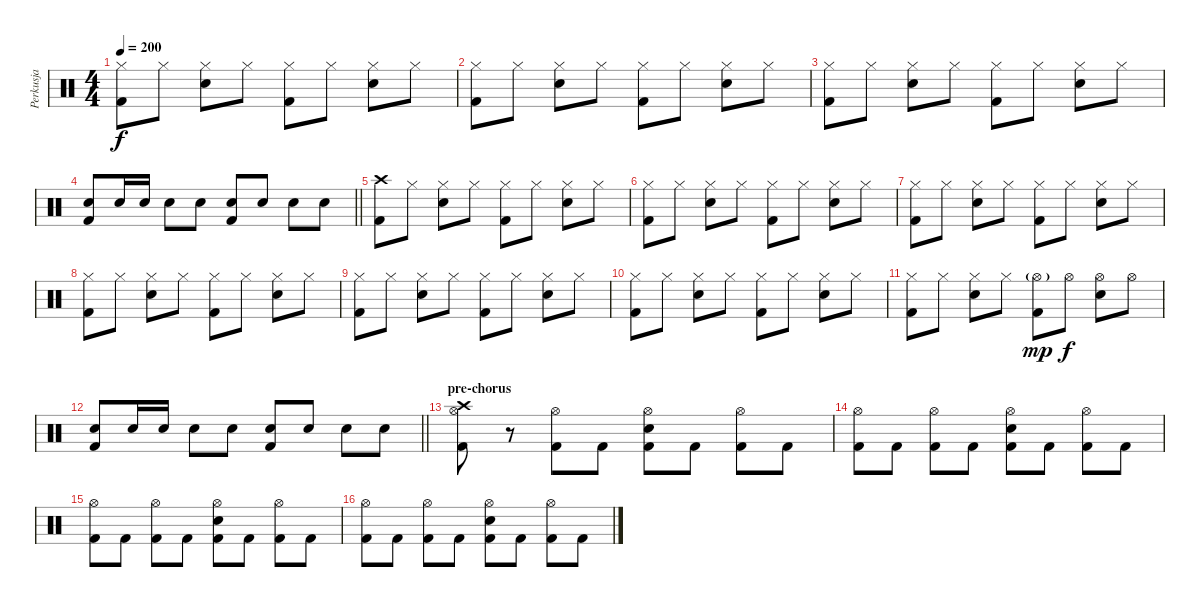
\track ("Perkusja" "Perkusja") {instrument percussion}
\staff {score}
\articulation defaults
\ts (4 4)
\tempo 200
\clef neutral
\ks c
("Hi-Hat (closed)" "Kick (hit) 2").8{dy f} "Hi-Hat (closed)".8 ("Hi-Hat (closed)" "Electric Snare (hit)").8 "Hi-Hat (closed)".8 ("Hi-Hat (closed)" "Kick (hit) 2").8 "Hi-Hat (closed)".8 ("Hi-Hat (closed)" "Electric Snare (hit)").8 "Hi-Hat (closed)".8 |
("Hi-Hat (closed)" "Kick (hit) 2").8 "Hi-Hat (closed)".8 ("Hi-Hat (closed)" "Electric Snare (hit)").8 "Hi-Hat (closed)".8 ("Hi-Hat (closed)" "Kick (hit) 2").8 "Hi-Hat (closed)".8 ("Hi-Hat (closed)" "Electric Snare (hit)").8 "Hi-Hat (closed)".8 |
("Hi-Hat (closed)" "Kick (hit) 2").8 "Hi-Hat (closed)".8 ("Hi-Hat (closed)" "Electric Snare (hit)").8 "Hi-Hat (closed)".8 ("Hi-Hat (closed)" "Kick (hit) 2").8 "Hi-Hat (closed)".8 ("Hi-Hat (closed)" "Electric Snare (hit)").8 "Hi-Hat (closed)".8 |
\barLineRight lightlight
("Electric Snare (hit)" "Kick (hit) 2").8 "Electric Snare (hit)".16 "Electric Snare (hit)".16 "Electric Snare (hit)".8 "Electric Snare (hit)".8 ("Electric Snare (hit)" "Kick (hit) 2").8 "Electric Snare (hit)".8 "Electric Snare (hit)".8 "Electric Snare (hit)".8 |
("Crash high (hit)" "Kick (hit) 2").8 "Hi-Hat (closed)".8 ("Hi-Hat (closed)" "Electric Snare (hit)").8 "Hi-Hat (closed)".8 ("Hi-Hat (closed)" "Kick (hit) 2").8 "Hi-Hat (closed)".8 ("Hi-Hat (closed)" "Electric Snare (hit)").8 "Hi-Hat (closed)".8 |
("Hi-Hat (closed)" "Kick (hit) 2").8 "Hi-Hat (closed)".8 ("Hi-Hat (closed)" "Electric Snare (hit)").8 "Hi-Hat (closed)".8 ("Hi-Hat (closed)" "Kick (hit) 2").8 "Hi-Hat (closed)".8 ("Hi-Hat (closed)" "Electric Snare (hit)").8 "Hi-Hat (closed)".8 |
("Hi-Hat (closed)" "Kick (hit) 2").8 "Hi-Hat (closed)".8 ("Hi-Hat (closed)" "Electric Snare (hit)").8 "Hi-Hat (closed)".8 ("Hi-Hat (closed)" "Kick (hit) 2").8 "Hi-Hat (closed)".8 ("Hi-Hat (closed)" "Electric Snare (hit)").8 "Hi-Hat (closed)".8 |
("Hi-Hat (closed)" "Kick (hit) 2").8 "Hi-Hat (closed)".8 ("Hi-Hat (closed)" "Electric Snare (hit)").8 "Hi-Hat (closed)".8 ("Hi-Hat (closed)" "Kick (hit) 2").8 "Hi-Hat (closed)".8 ("Hi-Hat (closed)" "Electric Snare (hit)").8 "Hi-Hat (closed)".8 |
("Hi-Hat (closed)" "Kick (hit) 2").8 "Hi-Hat (closed)".8 ("Hi-Hat (closed)" "Electric Snare (hit)").8 "Hi-Hat (closed)".8 ("Hi-Hat (closed)" "Kick (hit) 2").8 "Hi-Hat (closed)".8 ("Hi-Hat (closed)" "Electric Snare (hit)").8 "Hi-Hat (closed)".8 |
("Hi-Hat (closed)" "Kick (hit) 2").8 "Hi-Hat (closed)".8 ("Hi-Hat (closed)" "Electric Snare (hit)").8 "Hi-Hat (closed)".8 ("Hi-Hat (closed)" "Kick (hit) 2").8 "Hi-Hat (closed)".8 ("Hi-Hat (closed)" "Electric Snare (hit)").8 "Hi-Hat (closed)".8 |
("Hi-Hat (closed)" "Kick (hit) 2").8 "Hi-Hat (closed)".8 ("Hi-Hat (closed)" "Electric Snare (hit)").8 "Hi-Hat (closed)".8 ("Hi-Hat (open)"{g} "Kick (hit) 2").8{dy mp} "Hi-Hat (open)".8{dy f} ("Hi-Hat (open)" "Electric Snare (hit)").8 "Hi-Hat (open)".8 |
\barLineRight lightlight
("Electric Snare (hit)" "Kick (hit) 2").8 "Electric Snare (hit)".16 "Electric Snare (hit)".16 "Electric Snare (hit)".8 "Electric Snare (hit)".8 ("Electric Snare (hit)" "Kick (hit) 2").8 "Electric Snare (hit)".8 "Electric Snare (hit)".8 "Electric Snare (hit)".8 |
\section ("" "pre-chorus")
("Crash high (hit)" "Hi-Hat (open)" "Kick (hit) 2").8 r.8 ("Hi-Hat (open)" "Kick (hit) 2").8 "Kick (hit) 2".8 ("Hi-Hat (open)" "Electric Snare (hit)" "Kick (hit) 2").8 "Kick (hit) 2".8 ("Hi-Hat (open)" "Kick (hit) 2").8 "Kick (hit) 2".8 |
("Hi-Hat (open)" "Kick (hit) 2").8 "Kick (hit) 2".8 ("Hi-Hat (open)" "Kick (hit) 2").8 "Kick (hit) 2".8 ("Hi-Hat (open)" "Electric Snare (hit)" "Kick (hit) 2").8 "Kick (hit) 2".8 ("Hi-Hat (open)" "Kick (hit) 2").8 "Kick (hit) 2".8 |
("Hi-Hat (open)" "Kick (hit) 2").8 "Kick (hit) 2".8 ("Hi-Hat (open)" "Kick (hit) 2").8 "Kick (hit) 2".8 ("Hi-Hat (open)" "Electric Snare (hit)" "Kick (hit) 2").8 "Kick (hit) 2".8 ("Hi-Hat (open)" "Kick (hit) 2").8 "Kick (hit) 2".8 |
("Hi-Hat (open)" "Kick (hit) 2").8 "Kick (hit) 2".8 ("Hi-Hat (open)" "Kick (hit) 2").8 "Kick (hit) 2".8 ("Hi-Hat (open)" "Electric Snare (hit)" "Kick (hit) 2").8 "Kick (hit) 2".8 ("Hi-Hat (open)" "Kick (hit) 2").8 "Kick (hit) 2".8
